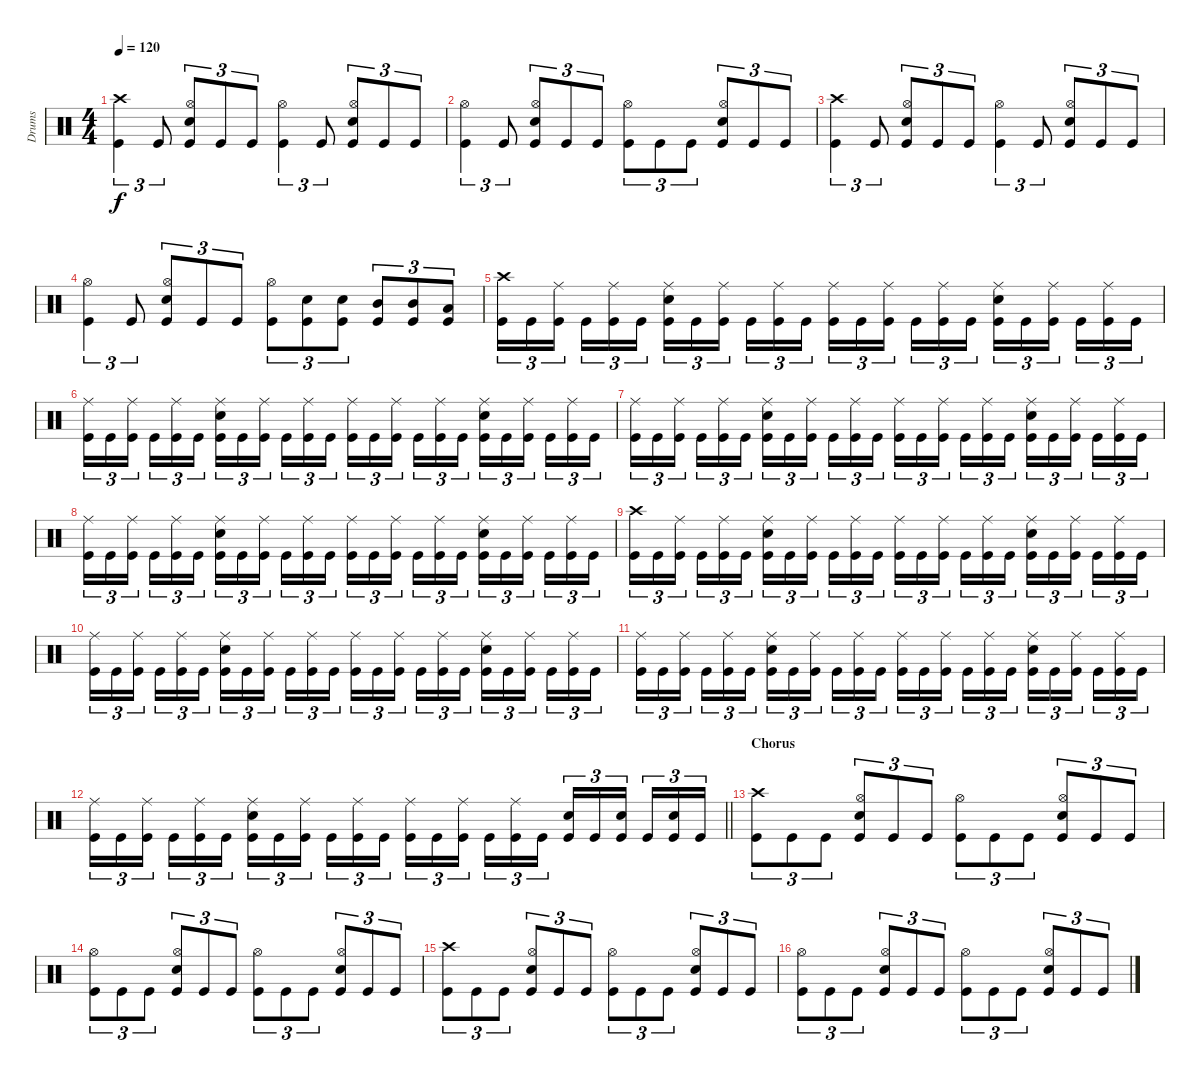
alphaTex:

\track ("Drums" "Drums") {instrument percussion}
\staff {score}
\articulation defaults
\ts (4 4)
\tempo 120
\clef neutral
\ks c
("Crash high (hit)" "Kick (hit)").4{tu (3 2) dy f} "Kick (hit)".8{tu (3 2)} ("Hi-Hat (open)" "Snare (hit) 2" "Kick (hit)").8{tu (3 2)} "Kick (hit)".8{tu (3 2)} "Kick (hit)".8{tu (3 2)} ("Hi-Hat (open)" "Kick (hit)").4{tu (3 2)} "Kick (hit)".8{tu (3 2)} ("Hi-Hat (open)" "Snare (hit) 2" "Kick (hit)").8{tu (3 2)} "Kick (hit)".8{tu (3 2)} "Kick (hit)".8{tu (3 2)} |
("Hi-Hat (open)" "Kick (hit)").4{tu (3 2)} "Kick (hit)".8{tu (3 2)} ("Hi-Hat (open)" "Snare (hit) 2" "Kick (hit)").8{tu (3 2)} "Kick (hit)".8{tu (3 2)} "Kick (hit)".8{tu (3 2)} ("Hi-Hat (open)" "Kick (hit)").8{tu (3 2)} "Kick (hit)".8{tu (3 2)} "Kick (hit)".8{tu (3 2)} ("Hi-Hat (open)" "Snare (hit) 2" "Kick (hit)").8{tu (3 2)} "Kick (hit)".8{tu (3 2)} "Kick (hit)".8{tu (3 2)} |
("Crash high (hit)" "Kick (hit)").4{tu (3 2)} "Kick (hit)".8{tu (3 2)} ("Hi-Hat (open)" "Snare (hit) 2" "Kick (hit)").8{tu (3 2)} "Kick (hit)".8{tu (3 2)} "Kick (hit)".8{tu (3 2)} ("Hi-Hat (open)" "Kick (hit)").4{tu (3 2)} "Kick (hit)".8{tu (3 2)} ("Hi-Hat (open)" "Snare (hit) 2" "Kick (hit)").8{tu (3 2)} "Kick (hit)".8{tu (3 2)} "Kick (hit)".8{tu (3 2)} |
("Hi-Hat (open)" "Kick (hit)").4{tu (3 2)} "Kick (hit)".8{tu (3 2)} ("Hi-Hat (open)" "Snare (hit) 2" "Kick (hit)").8{tu (3 2)} "Kick (hit)".8{tu (3 2)} "Kick (hit)".8{tu (3 2)} ("Hi-Hat (open)" "Kick (hit)").8{tu (3 2)} ("Snare (hit) 2" "Kick (hit)").8{tu (3 2)} ("Snare (hit) 2" "Kick (hit)").8{tu (3 2)} ("Mid Tom (hit)" "Kick (hit)").8{tu (3 2)} ("Mid Tom (hit)" "Kick (hit)").8{tu (3 2)} ("Low Tom (hit)" "Kick (hit)").8{tu (3 2)} |
("Crash high (hit)" "Kick (hit)").16{tu (3 2)} "Kick (hit)".16{tu (3 2)} ("Ride (middle)" "Kick (hit)").16{tu (3 2)} "Kick (hit)".16{tu (3 2)} ("Ride (middle)" "Kick (hit)").16{tu (3 2)} "Kick (hit)".16{tu (3 2)} ("Ride (middle)" "Snare (hit) 2" "Kick (hit)").16{tu (3 2)} "Kick (hit)".16{tu (3 2)} ("Ride (middle)" "Kick (hit)").16{tu (3 2)} "Kick (hit)".16{tu (3 2)} ("Ride (middle)" "Kick (hit)").16{tu (3 2)} "Kick (hit)".16{tu (3 2)} ("Ride (middle)" "Kick (hit)").16{tu (3 2)} "Kick (hit)".16{tu (3 2)} ("Ride (middle)" "Kick (hit)").16{tu (3 2)} "Kick (hit)".16{tu (3 2)} ("Ride (middle)" "Kick (hit)").16{tu (3 2)} "Kick (hit)".16{tu (3 2)} ("Ride (middle)" "Snare (hit) 2" "Kick (hit)").16{tu (3 2)} "Kick (hit)".16{tu (3 2)} ("Ride (middle)" "Kick (hit)").16{tu (3 2)} "Kick (hit)".16{tu (3 2)} ("Ride (middle)" "Kick (hit)").16{tu (3 2)} "Kick (hit)".16{tu (3 2)} |
("Ride (middle)" "Kick (hit)").16{tu (3 2)} "Kick (hit)".16{tu (3 2)} ("Ride (middle)" "Kick (hit)").16{tu (3 2)} "Kick (hit)".16{tu (3 2)} ("Ride (middle)" "Kick (hit)").16{tu (3 2)} "Kick (hit)".16{tu (3 2)} ("Ride (middle)" "Snare (hit) 2" "Kick (hit)").16{tu (3 2)} "Kick (hit)".16{tu (3 2)} ("Ride (middle)" "Kick (hit)").16{tu (3 2)} "Kick (hit)".16{tu (3 2)} ("Ride (middle)" "Kick (hit)").16{tu (3 2)} "Kick (hit)".16{tu (3 2)} ("Ride (middle)" "Kick (hit)").16{tu (3 2)} "Kick (hit)".16{tu (3 2)} ("Ride (middle)" "Kick (hit)").16{tu (3 2)} "Kick (hit)".16{tu (3 2)} ("Ride (middle)" "Kick (hit)").16{tu (3 2)} "Kick (hit)".16{tu (3 2)} ("Ride (middle)" "Snare (hit) 2" "Kick (hit)").16{tu (3 2)} "Kick (hit)".16{tu (3 2)} ("Ride (middle)" "Kick (hit)").16{tu (3 2)} "Kick (hit)".16{tu (3 2)} ("Ride (middle)" "Kick (hit)").16{tu (3 2)} "Kick (hit)".16{tu (3 2)} |
("Ride (middle)" "Kick (hit)").16{tu (3 2)} "Kick (hit)".16{tu (3 2)} ("Ride (middle)" "Kick (hit)").16{tu (3 2)} "Kick (hit)".16{tu (3 2)} ("Ride (middle)" "Kick (hit)").16{tu (3 2)} "Kick (hit)".16{tu (3 2)} ("Ride (middle)" "Snare (hit) 2" "Kick (hit)").16{tu (3 2)} "Kick (hit)".16{tu (3 2)} ("Ride (middle)" "Kick (hit)").16{tu (3 2)} "Kick (hit)".16{tu (3 2)} ("Ride (middle)" "Kick (hit)").16{tu (3 2)} "Kick (hit)".16{tu (3 2)} ("Ride (middle)" "Kick (hit)").16{tu (3 2)} "Kick (hit)".16{tu (3 2)} ("Ride (middle)" "Kick (hit)").16{tu (3 2)} "Kick (hit)".16{tu (3 2)} ("Ride (middle)" "Kick (hit)").16{tu (3 2)} "Kick (hit)".16{tu (3 2)} ("Ride (middle)" "Snare (hit) 2" "Kick (hit)").16{tu (3 2)} "Kick (hit)".16{tu (3 2)} ("Ride (middle)" "Kick (hit)").16{tu (3 2)} "Kick (hit)".16{tu (3 2)} ("Ride (middle)" "Kick (hit)").16{tu (3 2)} "Kick (hit)".16{tu (3 2)} |
("Ride (middle)" "Kick (hit)").16{tu (3 2)} "Kick (hit)".16{tu (3 2)} ("Ride (middle)" "Kick (hit)").16{tu (3 2)} "Kick (hit)".16{tu (3 2)} ("Ride (middle)" "Kick (hit)").16{tu (3 2)} "Kick (hit)".16{tu (3 2)} ("Ride (middle)" "Snare (hit) 2" "Kick (hit)").16{tu (3 2)} "Kick (hit)".16{tu (3 2)} ("Ride (middle)" "Kick (hit)").16{tu (3 2)} "Kick (hit)".16{tu (3 2)} ("Ride (middle)" "Kick (hit)").16{tu (3 2)} "Kick (hit)".16{tu (3 2)} ("Ride (middle)" "Kick (hit)").16{tu (3 2)} "Kick (hit)".16{tu (3 2)} ("Ride (middle)" "Kick (hit)").16{tu (3 2)} "Kick (hit)".16{tu (3 2)} ("Ride (middle)" "Kick (hit)").16{tu (3 2)} "Kick (hit)".16{tu (3 2)} ("Ride (middle)" "Snare (hit) 2" "Kick (hit)").16{tu (3 2)} "Kick (hit)".16{tu (3 2)} ("Ride (middle)" "Kick (hit)").16{tu (3 2)} "Kick (hit)".16{tu (3 2)} ("Ride (middle)" "Kick (hit)").16{tu (3 2)} "Kick (hit)".16{tu (3 2)} |
("Crash high (hit)" "Kick (hit)").16{tu (3 2)} "Kick (hit)".16{tu (3 2)} ("Ride (middle)" "Kick (hit)").16{tu (3 2)} "Kick (hit)".16{tu (3 2)} ("Ride (middle)" "Kick (hit)").16{tu (3 2)} "Kick (hit)".16{tu (3 2)} ("Ride (middle)" "Snare (hit) 2" "Kick (hit)").16{tu (3 2)} "Kick (hit)".16{tu (3 2)} ("Ride (middle)" "Kick (hit)").16{tu (3 2)} "Kick (hit)".16{tu (3 2)} ("Ride (middle)" "Kick (hit)").16{tu (3 2)} "Kick (hit)".16{tu (3 2)} ("Ride (middle)" "Kick (hit)").16{tu (3 2)} "Kick (hit)".16{tu (3 2)} ("Ride (middle)" "Kick (hit)").16{tu (3 2)} "Kick (hit)".16{tu (3 2)} ("Ride (middle)" "Kick (hit)").16{tu (3 2)} "Kick (hit)".16{tu (3 2)} ("Ride (middle)" "Snare (hit) 2" "Kick (hit)").16{tu (3 2)} "Kick (hit)".16{tu (3 2)} ("Ride (middle)" "Kick (hit)").16{tu (3 2)} "Kick (hit)".16{tu (3 2)} ("Ride (middle)" "Kick (hit)").16{tu (3 2)} "Kick (hit)".16{tu (3 2)} |
("Ride (middle)" "Kick (hit)").16{tu (3 2)} "Kick (hit)".16{tu (3 2)} ("Ride (middle)" "Kick (hit)").16{tu (3 2)} "Kick (hit)".16{tu (3 2)} ("Ride (middle)" "Kick (hit)").16{tu (3 2)} "Kick (hit)".16{tu (3 2)} ("Ride (middle)" "Snare (hit) 2" "Kick (hit)").16{tu (3 2)} "Kick (hit)".16{tu (3 2)} ("Ride (middle)" "Kick (hit)").16{tu (3 2)} "Kick (hit)".16{tu (3 2)} ("Ride (middle)" "Kick (hit)").16{tu (3 2)} "Kick (hit)".16{tu (3 2)} ("Ride (middle)" "Kick (hit)").16{tu (3 2)} "Kick (hit)".16{tu (3 2)} ("Ride (middle)" "Kick (hit)").16{tu (3 2)} "Kick (hit)".16{tu (3 2)} ("Ride (middle)" "Kick (hit)").16{tu (3 2)} "Kick (hit)".16{tu (3 2)} ("Ride (middle)" "Snare (hit) 2" "Kick (hit)").16{tu (3 2)} "Kick (hit)".16{tu (3 2)} ("Ride (middle)" "Kick (hit)").16{tu (3 2)} "Kick (hit)".16{tu (3 2)} ("Ride (middle)" "Kick (hit)").16{tu (3 2)} "Kick (hit)".16{tu (3 2)} |
("Ride (middle)" "Kick (hit)").16{tu (3 2)} "Kick (hit)".16{tu (3 2)} ("Ride (middle)" "Kick (hit)").16{tu (3 2)} "Kick (hit)".16{tu (3 2)} ("Ride (middle)" "Kick (hit)").16{tu (3 2)} "Kick (hit)".16{tu (3 2)} ("Ride (middle)" "Snare (hit) 2" "Kick (hit)").16{tu (3 2)} "Kick (hit)".16{tu (3 2)} ("Ride (middle)" "Kick (hit)").16{tu (3 2)} "Kick (hit)".16{tu (3 2)} ("Ride (middle)" "Kick (hit)").16{tu (3 2)} "Kick (hit)".16{tu (3 2)} ("Ride (middle)" "Kick (hit)").16{tu (3 2)} "Kick (hit)".16{tu (3 2)} ("Ride (middle)" "Kick (hit)").16{tu (3 2)} "Kick (hit)".16{tu (3 2)} ("Ride (middle)" "Kick (hit)").16{tu (3 2)} "Kick (hit)".16{tu (3 2)} ("Ride (middle)" "Snare (hit) 2" "Kick (hit)").16{tu (3 2)} "Kick (hit)".16{tu (3 2)} ("Ride (middle)" "Kick (hit)").16{tu (3 2)} "Kick (hit)".16{tu (3 2)} ("Ride (middle)" "Kick (hit)").16{tu (3 2)} "Kick (hit)".16{tu (3 2)} |
\barLineRight lightlight
("Ride (middle)" "Kick (hit)").16{tu (3 2)} "Kick (hit)".16{tu (3 2)} ("Ride (middle)" "Kick (hit)").16{tu (3 2)} "Kick (hit)".16{tu (3 2)} ("Ride (middle)" "Kick (hit)").16{tu (3 2)} "Kick (hit)".16{tu (3 2)} ("Ride (middle)" "Snare (hit) 2" "Kick (hit)").16{tu (3 2)} "Kick (hit)".16{tu (3 2)} ("Ride (middle)" "Kick (hit)").16{tu (3 2)} "Kick (hit)".16{tu (3 2)} ("Ride (middle)" "Kick (hit)").16{tu (3 2)} "Kick (hit)".16{tu (3 2)} ("Ride (middle)" "Kick (hit)").16{tu (3 2)} "Kick (hit)".16{tu (3 2)} ("Ride (middle)" "Kick (hit)").16{tu (3 2)} "Kick (hit)".16{tu (3 2)} ("Ride (middle)" "Kick (hit)").16{tu (3 2)} "Kick (hit)".16{tu (3 2)} ("Snare (hit) 2" "Kick (hit)").16{tu (3 2)} "Kick (hit)".16{tu (3 2)} ("Snare (hit) 2" "Kick (hit)").16{tu (3 2)} "Kick (hit)".16{tu (3 2)} ("Snare (hit) 2" "Kick (hit)").16{tu (3 2)} "Kick (hit)".16{tu (3 2)} |
\section ("" "Chorus")
("Crash high (hit)" "Kick (hit)").8{tu (3 2)} "Kick (hit)".8{tu (3 2)} "Kick (hit)".8{tu (3 2)} ("Hi-Hat (open)" "Snare (hit) 2" "Kick (hit)").8{tu (3 2)} "Kick (hit)".8{tu (3 2)} "Kick (hit)".8{tu (3 2)} ("Hi-Hat (open)" "Kick (hit)").8{tu (3 2)} "Kick (hit)".8{tu (3 2)} "Kick (hit)".8{tu (3 2)} ("Hi-Hat (open)" "Snare (hit) 2" "Kick (hit)").8{tu (3 2)} "Kick (hit)".8{tu (3 2)} "Kick (hit)".8{tu (3 2)} |
("Hi-Hat (open)" "Kick (hit)").8{tu (3 2)} "Kick (hit)".8{tu (3 2)} "Kick (hit)".8{tu (3 2)} ("Hi-Hat (open)" "Snare (hit) 2" "Kick (hit)").8{tu (3 2)} "Kick (hit)".8{tu (3 2)} "Kick (hit)".8{tu (3 2)} ("Hi-Hat (open)" "Kick (hit)").8{tu (3 2)} "Kick (hit)".8{tu (3 2)} "Kick (hit)".8{tu (3 2)} ("Hi-Hat (open)" "Snare (hit) 2" "Kick (hit)").8{tu (3 2)} "Kick (hit)".8{tu (3 2)} "Kick (hit)".8{tu (3 2)} |
("Crash high (hit)" "Kick (hit)").8{tu (3 2)} "Kick (hit)".8{tu (3 2)} "Kick (hit)".8{tu (3 2)} ("Hi-Hat (open)" "Snare (hit) 2" "Kick (hit)").8{tu (3 2)} "Kick (hit)".8{tu (3 2)} "Kick (hit)".8{tu (3 2)} ("Hi-Hat (open)" "Kick (hit)").8{tu (3 2)} "Kick (hit)".8{tu (3 2)} "Kick (hit)".8{tu (3 2)} ("Hi-Hat (open)" "Snare (hit) 2" "Kick (hit)").8{tu (3 2)} "Kick (hit)".8{tu (3 2)} "Kick (hit)".8{tu (3 2)} |
("Hi-Hat (open)" "Kick (hit)").8{tu (3 2)} "Kick (hit)".8{tu (3 2)} "Kick (hit)".8{tu (3 2)} ("Hi-Hat (open)" "Snare (hit) 2" "Kick (hit)").8{tu (3 2)} "Kick (hit)".8{tu (3 2)} "Kick (hit)".8{tu (3 2)} ("Hi-Hat (open)" "Kick (hit)").8{tu (3 2)} "Kick (hit)".8{tu (3 2)} "Kick (hit)".8{tu (3 2)} ("Hi-Hat (open)" "Snare (hit) 2" "Kick (hit)").8{tu (3 2)} "Kick (hit)".8{tu (3 2)} "Kick (hit)".8{tu (3 2)}
